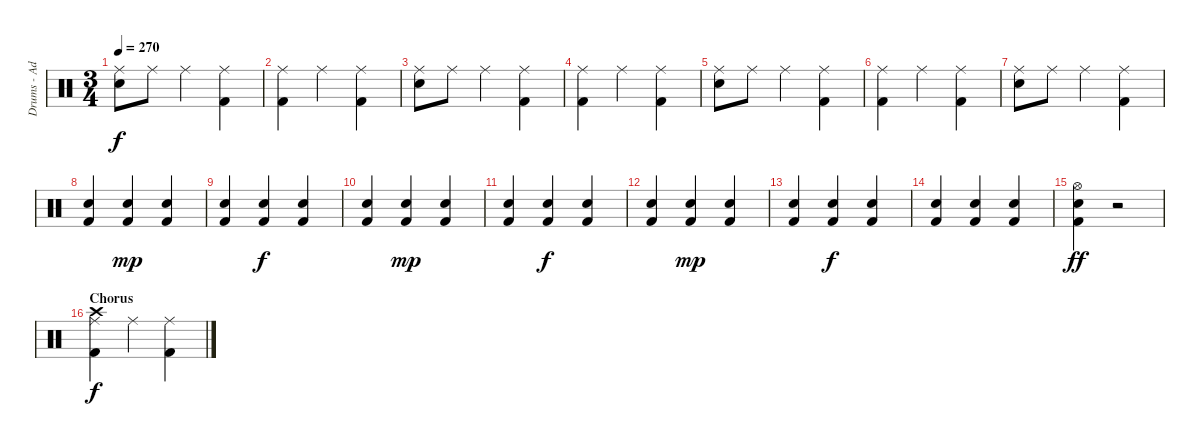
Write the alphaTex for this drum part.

\track ("Drums - Adam" "Drums - Ad") {instrument percussion}
\staff {score}
\articulation defaults
\ts (3 4)
\tempo 270
\clef neutral
\ks c
("Ride (middle)" "Electric Snare (hit)").8{dy f} "Ride (middle)".8 "Ride (middle)".4 ("Ride (middle)" "Kick (hit) 2").4 |
("Ride (middle)" "Kick (hit) 2").4 "Ride (middle)".4 ("Ride (middle)" "Kick (hit) 2").4 |
("Ride (middle)" "Electric Snare (hit)").8 "Ride (middle)".8 "Ride (middle)".4 ("Ride (middle)" "Kick (hit) 2").4 |
("Ride (middle)" "Kick (hit) 2").4 "Ride (middle)".4 ("Ride (middle)" "Kick (hit) 2").4 |
("Ride (middle)" "Electric Snare (hit)").8 "Ride (middle)".8 "Ride (middle)".4 ("Ride (middle)" "Kick (hit) 2").4 |
("Ride (middle)" "Kick (hit) 2").4 "Ride (middle)".4 ("Ride (middle)" "Kick (hit) 2").4 |
("Ride (middle)" "Electric Snare (hit)").8 "Ride (middle)".8 "Ride (middle)".4 ("Ride (middle)" "Kick (hit) 2").4 |
("Kick (hit) 2" "Electric Snare (hit)").4 ("Kick (hit) 2" "Electric Snare (hit)").4{dy mp} ("Kick (hit) 2" "Electric Snare (hit)").4 |
("Kick (hit) 2" "Electric Snare (hit)").4 ("Kick (hit) 2" "Electric Snare (hit)").4{dy f} ("Kick (hit) 2" "Electric Snare (hit)").4 |
("Kick (hit) 2" "Electric Snare (hit)").4 ("Kick (hit) 2" "Electric Snare (hit)").4{dy mp} ("Kick (hit) 2" "Electric Snare (hit)").4 |
("Kick (hit) 2" "Electric Snare (hit)").4 ("Kick (hit) 2" "Electric Snare (hit)").4{dy f} ("Kick (hit) 2" "Electric Snare (hit)").4 |
("Kick (hit) 2" "Electric Snare (hit)").4 ("Kick (hit) 2" "Electric Snare (hit)").4{dy mp} ("Kick (hit) 2" "Electric Snare (hit)").4 |
("Kick (hit) 2" "Electric Snare (hit)").4 ("Kick (hit) 2" "Electric Snare (hit)").4{dy f} ("Kick (hit) 2" "Electric Snare (hit)").4 |
("Kick (hit) 2" "Electric Snare (hit)").4 ("Kick (hit) 2" "Electric Snare (hit)").4 ("Kick (hit) 2" "Electric Snare (hit)").4 |
("Hi-Hat (open)" "Kick (hit) 2" "Electric Snare (hit)").4{dy ff} r.2 |
\section ("" "Chorus")
("Ride (middle)" "Kick (hit) 2" "Crash high (hit)").4{dy f} "Ride (middle)".4 ("Ride (middle)" "Kick (hit) 2").4
